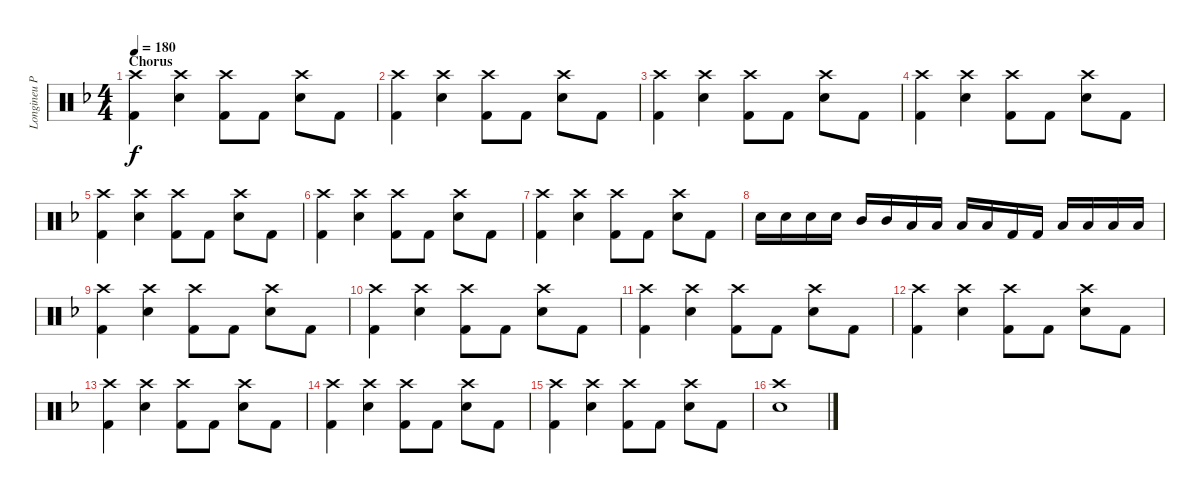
\track ("Longineu Parsons III (Drums 1)" "Longineu P") {instrument percussion}
\staff {score}
\articulation defaults
\ts (4 4)
\section ("" "Chorus")
\tempo 180
\clef neutral
\ks f
("Kick (hit) 2" "Crash high (hit)").4{dy f} ("Snare (hit) 2" "Crash high (hit)").4 ("Crash high (hit)" "Kick (hit) 2").8 "Kick (hit) 2".8 ("Crash high (hit)" "Snare (hit) 2").8 "Kick (hit) 2".8 |
("Kick (hit) 2" "Crash high (hit)").4 ("Snare (hit) 2" "Crash high (hit)").4 ("Crash high (hit)" "Kick (hit) 2").8 "Kick (hit) 2".8 ("Crash high (hit)" "Snare (hit) 2").8 "Kick (hit) 2".8 |
("Kick (hit) 2" "Crash high (hit)").4 ("Snare (hit) 2" "Crash high (hit)").4 ("Crash high (hit)" "Kick (hit) 2").8 "Kick (hit) 2".8 ("Crash high (hit)" "Snare (hit) 2").8 "Kick (hit) 2".8 |
("Kick (hit) 2" "Crash high (hit)").4 ("Snare (hit) 2" "Crash high (hit)").4 ("Crash high (hit)" "Kick (hit) 2").8 "Kick (hit) 2".8 ("Crash high (hit)" "Snare (hit) 2").8 "Kick (hit) 2".8 |
("Kick (hit) 2" "Crash high (hit)").4 ("Snare (hit) 2" "Crash high (hit)").4 ("Crash high (hit)" "Kick (hit) 2").8 "Kick (hit) 2".8 ("Crash high (hit)" "Snare (hit) 2").8 "Kick (hit) 2".8 |
("Kick (hit) 2" "Crash high (hit)").4 ("Snare (hit) 2" "Crash high (hit)").4 ("Crash high (hit)" "Kick (hit) 2").8 "Kick (hit) 2".8 ("Crash high (hit)" "Snare (hit) 2").8 "Kick (hit) 2".8 |
("Kick (hit) 2" "Crash high (hit)").4 ("Snare (hit) 2" "Crash high (hit)").4 ("Crash high (hit)" "Kick (hit) 2").8 "Kick (hit) 2".8 ("Crash high (hit)" "Snare (hit) 2").8 "Kick (hit) 2".8 |
"Snare (hit) 2".16 "Snare (hit) 2".16 "Snare (hit) 2".16 "Snare (hit) 2".16 "Mid Tom (hit)".16 "Mid Tom (hit)".16 "Low Tom (hit)".16 "Low Tom (hit)".16 "Low Floor Tom (hit)".16 "Low Floor Tom (hit)".16 "Kick (hit) 2".16 "Kick (hit) 2".16 "Low Tom (hit)".16 "Low Tom (hit)".16 "Low Floor Tom (hit)".16 "Low Floor Tom (hit)".16 |
("Kick (hit) 2" "Crash high (hit)").4 ("Snare (hit) 2" "Crash high (hit)").4 ("Crash high (hit)" "Kick (hit) 2").8 "Kick (hit) 2".8 ("Crash high (hit)" "Snare (hit) 2").8 "Kick (hit) 2".8 |
("Kick (hit) 2" "Crash high (hit)").4 ("Snare (hit) 2" "Crash high (hit)").4 ("Crash high (hit)" "Kick (hit) 2").8 "Kick (hit) 2".8 ("Crash high (hit)" "Snare (hit) 2").8 "Kick (hit) 2".8 |
("Kick (hit) 2" "Crash high (hit)").4 ("Snare (hit) 2" "Crash high (hit)").4 ("Crash high (hit)" "Kick (hit) 2").8 "Kick (hit) 2".8 ("Crash high (hit)" "Snare (hit) 2").8 "Kick (hit) 2".8 |
("Kick (hit) 2" "Crash high (hit)").4 ("Snare (hit) 2" "Crash high (hit)").4 ("Crash high (hit)" "Kick (hit) 2").8 "Kick (hit) 2".8 ("Crash high (hit)" "Snare (hit) 2").8 "Kick (hit) 2".8 |
("Kick (hit) 2" "Crash high (hit)").4 ("Snare (hit) 2" "Crash high (hit)").4 ("Crash high (hit)" "Kick (hit) 2").8 "Kick (hit) 2".8 ("Crash high (hit)" "Snare (hit) 2").8 "Kick (hit) 2".8 |
("Kick (hit) 2" "Crash high (hit)").4 ("Snare (hit) 2" "Crash high (hit)").4 ("Crash high (hit)" "Kick (hit) 2").8 "Kick (hit) 2".8 ("Crash high (hit)" "Snare (hit) 2").8 "Kick (hit) 2".8 |
("Kick (hit) 2" "Crash high (hit)").4 ("Snare (hit) 2" "Crash high (hit)").4 ("Crash high (hit)" "Kick (hit) 2").8 "Kick (hit) 2".8 ("Crash high (hit)" "Snare (hit) 2").8 "Kick (hit) 2".8 |
("Crash high (hit)" "Snare (hit) 2").1
